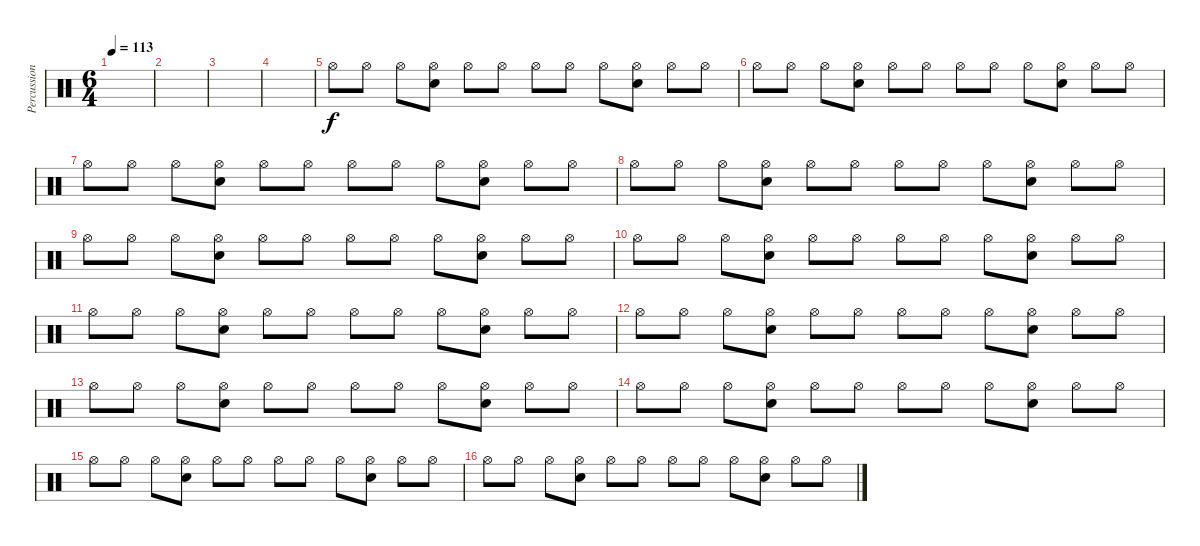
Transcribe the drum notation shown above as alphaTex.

\track ("Percussion" "Percussion") {instrument percussion}
\staff {score}
\articulation defaults
\ts (6 4)
\tempo 113
\clef neutral
\ks c
|
|
|
|
"Hi-Hat (open)".8 "Hi-Hat (open)".8 "Hi-Hat (open)".8 ("Electric Snare (hit)" "Hi-Hat (open)").8 "Hi-Hat (open)".8 "Hi-Hat (open)".8 "Hi-Hat (open)".8 "Hi-Hat (open)".8 "Hi-Hat (open)".8 ("Electric Snare (hit)" "Hi-Hat (open)").8 "Hi-Hat (open)".8 "Hi-Hat (open)".8 |
"Hi-Hat (open)".8 "Hi-Hat (open)".8 "Hi-Hat (open)".8 ("Electric Snare (hit)" "Hi-Hat (open)").8 "Hi-Hat (open)".8 "Hi-Hat (open)".8 "Hi-Hat (open)".8 "Hi-Hat (open)".8 "Hi-Hat (open)".8 ("Electric Snare (hit)" "Hi-Hat (open)").8 "Hi-Hat (open)".8 "Hi-Hat (open)".8 |
"Hi-Hat (open)".8 "Hi-Hat (open)".8 "Hi-Hat (open)".8 ("Electric Snare (hit)" "Hi-Hat (open)").8 "Hi-Hat (open)".8 "Hi-Hat (open)".8 "Hi-Hat (open)".8 "Hi-Hat (open)".8 "Hi-Hat (open)".8 ("Electric Snare (hit)" "Hi-Hat (open)").8 "Hi-Hat (open)".8 "Hi-Hat (open)".8 |
"Hi-Hat (open)".8 "Hi-Hat (open)".8 "Hi-Hat (open)".8 ("Electric Snare (hit)" "Hi-Hat (open)").8 "Hi-Hat (open)".8 "Hi-Hat (open)".8 "Hi-Hat (open)".8 "Hi-Hat (open)".8 "Hi-Hat (open)".8 ("Electric Snare (hit)" "Hi-Hat (open)").8 "Hi-Hat (open)".8 "Hi-Hat (open)".8 |
"Hi-Hat (open)".8 "Hi-Hat (open)".8 "Hi-Hat (open)".8 ("Electric Snare (hit)" "Hi-Hat (open)").8 "Hi-Hat (open)".8 "Hi-Hat (open)".8 "Hi-Hat (open)".8 "Hi-Hat (open)".8 "Hi-Hat (open)".8 ("Electric Snare (hit)" "Hi-Hat (open)").8 "Hi-Hat (open)".8 "Hi-Hat (open)".8 |
"Hi-Hat (open)".8 "Hi-Hat (open)".8 "Hi-Hat (open)".8 ("Electric Snare (hit)" "Hi-Hat (open)").8 "Hi-Hat (open)".8 "Hi-Hat (open)".8 "Hi-Hat (open)".8 "Hi-Hat (open)".8 "Hi-Hat (open)".8 ("Electric Snare (hit)" "Hi-Hat (open)").8 "Hi-Hat (open)".8 "Hi-Hat (open)".8 |
"Hi-Hat (open)".8 "Hi-Hat (open)".8 "Hi-Hat (open)".8 ("Electric Snare (hit)" "Hi-Hat (open)").8 "Hi-Hat (open)".8 "Hi-Hat (open)".8 "Hi-Hat (open)".8 "Hi-Hat (open)".8 "Hi-Hat (open)".8 ("Electric Snare (hit)" "Hi-Hat (open)").8 "Hi-Hat (open)".8 "Hi-Hat (open)".8 |
"Hi-Hat (open)".8 "Hi-Hat (open)".8 "Hi-Hat (open)".8 ("Electric Snare (hit)" "Hi-Hat (open)").8 "Hi-Hat (open)".8 "Hi-Hat (open)".8 "Hi-Hat (open)".8 "Hi-Hat (open)".8 "Hi-Hat (open)".8 ("Electric Snare (hit)" "Hi-Hat (open)").8 "Hi-Hat (open)".8 "Hi-Hat (open)".8 |
"Hi-Hat (open)".8 "Hi-Hat (open)".8 "Hi-Hat (open)".8 ("Electric Snare (hit)" "Hi-Hat (open)").8 "Hi-Hat (open)".8 "Hi-Hat (open)".8 "Hi-Hat (open)".8 "Hi-Hat (open)".8 "Hi-Hat (open)".8 ("Electric Snare (hit)" "Hi-Hat (open)").8 "Hi-Hat (open)".8 "Hi-Hat (open)".8 |
"Hi-Hat (open)".8 "Hi-Hat (open)".8 "Hi-Hat (open)".8 ("Electric Snare (hit)" "Hi-Hat (open)").8 "Hi-Hat (open)".8 "Hi-Hat (open)".8 "Hi-Hat (open)".8 "Hi-Hat (open)".8 "Hi-Hat (open)".8 ("Electric Snare (hit)" "Hi-Hat (open)").8 "Hi-Hat (open)".8 "Hi-Hat (open)".8 |
"Hi-Hat (open)".8 "Hi-Hat (open)".8 "Hi-Hat (open)".8 ("Electric Snare (hit)" "Hi-Hat (open)").8 "Hi-Hat (open)".8 "Hi-Hat (open)".8 "Hi-Hat (open)".8 "Hi-Hat (open)".8 "Hi-Hat (open)".8 ("Electric Snare (hit)" "Hi-Hat (open)").8 "Hi-Hat (open)".8 "Hi-Hat (open)".8 |
"Hi-Hat (open)".8 "Hi-Hat (open)".8 "Hi-Hat (open)".8 ("Electric Snare (hit)" "Hi-Hat (open)").8 "Hi-Hat (open)".8 "Hi-Hat (open)".8 "Hi-Hat (open)".8 "Hi-Hat (open)".8 "Hi-Hat (open)".8 ("Electric Snare (hit)" "Hi-Hat (open)").8 "Hi-Hat (open)".8 "Hi-Hat (open)".8
